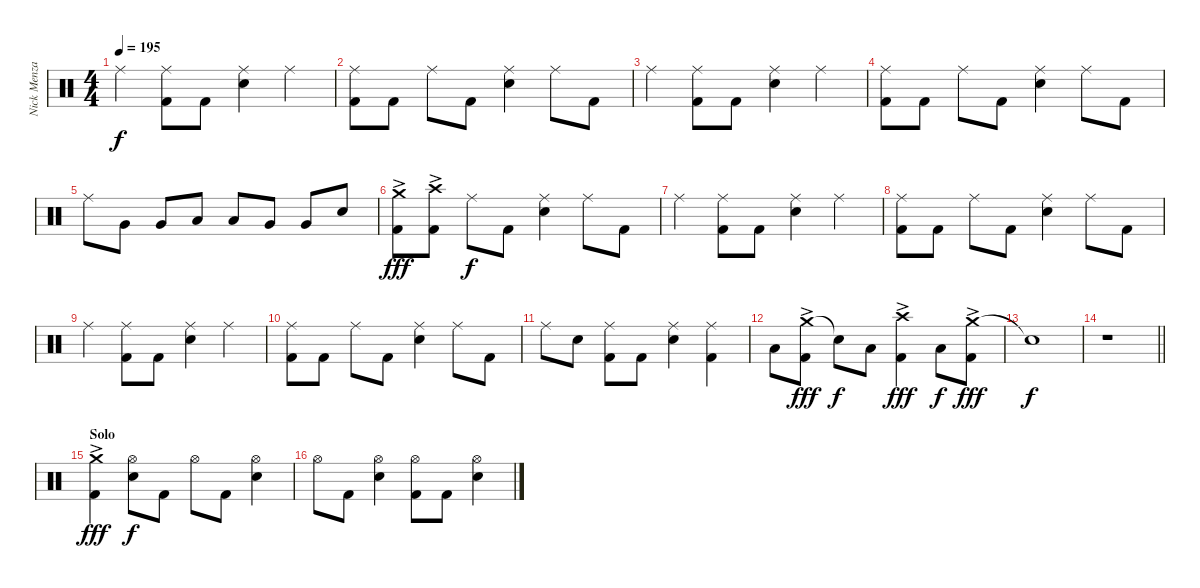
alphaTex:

\track ("Nick Menza" "Nick Menza") {instrument percussion}
\staff {score}
\articulation defaults
\ts (4 4)
\tempo 195
\clef neutral
\ks c "Ride (middle)".4{dy f}
("Ride (middle)" "Kick (hit) 2").8 "Kick (hit) 2".8 ("Ride (middle)" "Snare (hit) 2").4 "Ride (middle)".4 |
("Ride (middle)" "Kick (hit) 2").8 "Kick (hit) 2".8 "Ride (middle)".8 "Kick (hit) 2".8 ("Ride (middle)" "Snare (hit) 2").4 "Ride (middle)".8 "Kick (hit) 2".8 |
"Ride (middle)".4 ("Ride (middle)" "Kick (hit) 2").8 "Kick (hit) 2".8 ("Ride (middle)" "Snare (hit) 2").4 "Ride (middle)".4 |
("Ride (middle)" "Kick (hit) 2").8 "Kick (hit) 2".8 "Ride (middle)".8 "Kick (hit) 2".8 ("Ride (middle)" "Snare (hit) 2").4 "Ride (middle)".8 "Kick (hit) 2".8 |
"Ride (middle)".8 "Very Low Tom (hit)".8 "Very Low Tom (hit)".8 "Low Tom (hit)".8 "Low Tom (hit)".8 "Very Low Tom (hit)".8 "Very Low Tom (hit)".8 "Snare (hit) 2".8 |
("Crash medium (hit)"{ac} "Kick (hit) 2").8{dy fff} ("Crash high (hit)"{ac} "Kick (hit) 2").8 "Ride (middle)".8{dy f} "Kick (hit) 2".8 ("Ride (middle)" "Snare (hit) 2").4 "Ride (middle)".8 "Kick (hit) 2".8 |
"Ride (middle)".4 ("Ride (middle)" "Kick (hit) 2").8 "Kick (hit) 2".8 ("Ride (middle)" "Snare (hit) 2").4 "Ride (middle)".4 |
("Ride (middle)" "Kick (hit) 2").8 "Kick (hit) 2".8 "Ride (middle)".8 "Kick (hit) 2".8 ("Ride (middle)" "Snare (hit) 2").4 "Ride (middle)".8 "Kick (hit) 2".8 |
"Ride (middle)".4 ("Ride (middle)" "Kick (hit) 2").8 "Kick (hit) 2".8 ("Ride (middle)" "Snare (hit) 2").4 "Ride (middle)".4 |
("Ride (middle)" "Kick (hit) 2").8 "Kick (hit) 2".8 "Ride (middle)".8 "Kick (hit) 2".8 ("Ride (middle)" "Snare (hit) 2").4 "Ride (middle)".8 "Kick (hit) 2".8 |
"Ride (middle)".8 "Snare (hit) 2".8 ("Ride (middle)" "Kick (hit) 2").8 "Kick (hit) 2".8 ("Ride (middle)" "Snare (hit) 2").4 ("Ride (middle)" "Kick (hit) 2").4 |
"Low Tom (hit)".8 ("Crash medium (hit)"{ac} "Kick (hit) 2").8{dy fff} "Snare (hit)"{t}.8{dy f} "Low Tom (hit)".8 ("Crash high (hit)"{ac} "Kick (hit) 2").4{dy fff} "Low Tom (hit)".8{dy f} ("Crash medium (hit)"{ac} "Kick (hit) 2").8{dy fff} |
"Snare (hit)"{t}.1{dy f} |
\barLineRight lightlight
r.1 |
\section ("" "Solo")
("Crash medium (hit)"{ac} "Kick (hit) 2").4{dy fff} ("Hi-Hat (open)" "Snare (hit) 2").8{dy f} "Kick (hit) 2".8 "Hi-Hat (open)".8 "Kick (hit) 2".8 ("Hi-Hat (open)" "Snare (hit) 2").4 |
"Hi-Hat (open)".8 "Kick (hit) 2".8 ("Hi-Hat (open)" "Snare (hit) 2").4 ("Hi-Hat (open)" "Kick (hit) 2").8 "Kick (hit) 2".8 ("Hi-Hat (open)" "Snare (hit) 2").4
